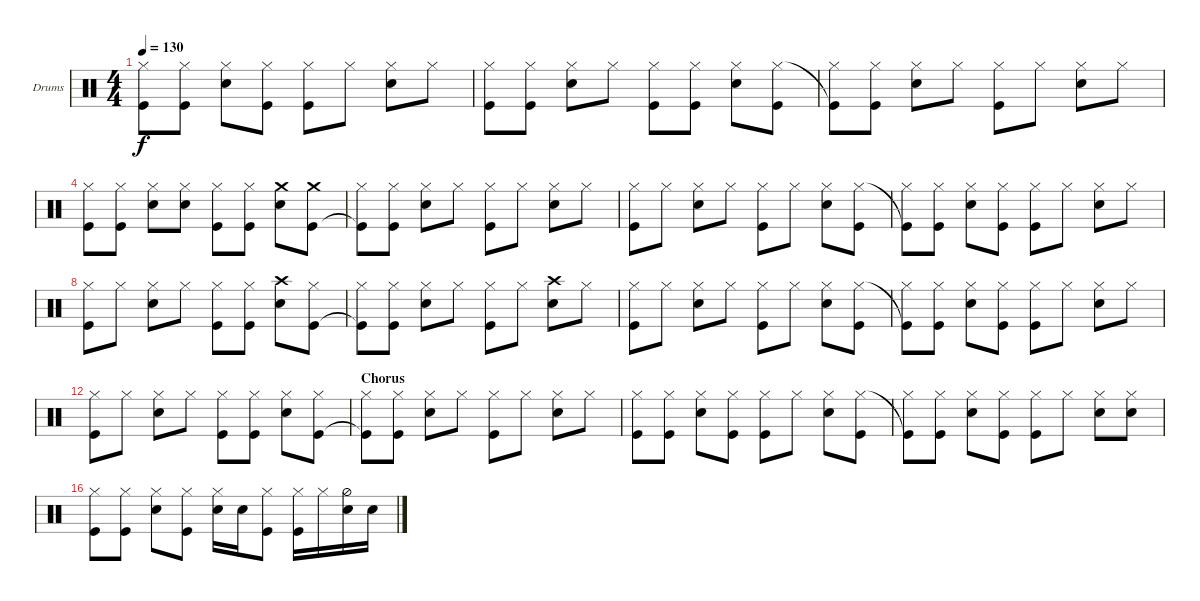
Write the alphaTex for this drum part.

\bracketExtendMode nobrackets
\firstSystemTrackNameOrientation horizontal
\otherSystemsTrackNameOrientation horizontal
\defaultBarNumberDisplay FirstOfSystem
\track ("Drumkit" "Drums") {instrument percussion}
\staff {score}
\articulation defaults
\ts (4 4)
\scale
0.28
\tempo 130
\accidentals auto
\clef neutral
\ottava regular
\simile none
\ks c
("Hi-Hat (closed)" "Kick (hit)"{t}).8{dy f} ("Kick (hit)" "Hi-Hat (closed)").8 ("Snare (hit) 2" "Hi-Hat (closed)").8 ("Hi-Hat (closed)" "Kick (hit)").8 ("Kick (hit)" "Hi-Hat (closed)").8 "Hi-Hat (closed)".8 ("Snare (hit) 2" "Hi-Hat (closed)").8 "Hi-Hat (closed)".8 |
\scale
0.275862 ("Kick (hit)" "Hi-Hat (closed)").8 ("Hi-Hat (closed)" "Kick (hit)").8 ("Snare (hit) 2" "Hi-Hat (closed)").8 "Hi-Hat (closed)".8 ("Kick (hit)" "Hi-Hat (closed)").8 ("Hi-Hat (closed)" "Kick (hit)").8 ("Snare (hit) 2" "Hi-Hat (closed)").8 ("Kick (hit)" "Hi-Hat (closed)").8 |
\scale
0.433498 ("Hi-Hat (closed)" "Kick (hit)"{t}).8 ("Kick (hit)" "Hi-Hat (closed)").8 ("Snare (hit) 2" "Hi-Hat (closed)").8 "Hi-Hat (closed)".8 ("Kick (hit)" "Hi-Hat (closed)").8 "Hi-Hat (closed)".8 ("Snare (hit) 2" "Hi-Hat (closed)").8 "Hi-Hat (closed)".8 |
\scale
0.29064 ("Kick (hit)" "Hi-Hat (closed)").8 ("Hi-Hat (closed)" "Kick (hit)").8 ("Snare (hit) 2" "Hi-Hat (closed)").8 ("Hi-Hat (closed)" "Snare (hit) 2").8 ("Kick (hit)" "Hi-Hat (closed)").8 ("Kick (hit)" "Hi-Hat (closed)").8 ("Snare (hit) 2" "Crash medium (hit)").8 ("Kick (hit)" "Crash medium (hit)").8 |
\scale
0.333333 ("Kick (hit)"{t} "Hi-Hat (closed)").8 ("Kick (hit)" "Hi-Hat (closed)").8 ("Snare (hit) 2" "Hi-Hat (closed)").8 "Hi-Hat (closed)".8 ("Kick (hit)" "Hi-Hat (closed)").8 "Hi-Hat (closed)".8 ("Snare (hit) 2" "Hi-Hat (closed)").8 "Hi-Hat (closed)".8 |
\scale
0.333333 ("Kick (hit)" "Hi-Hat (closed)").8 "Hi-Hat (closed)".8 ("Snare (hit) 2" "Hi-Hat (closed)").8 "Hi-Hat (closed)".8 ("Kick (hit)" "Hi-Hat (closed)").8 "Hi-Hat (closed)".8 ("Snare (hit) 2" "Hi-Hat (closed)").8 ("Kick (hit)" "Hi-Hat (closed)").8 |
\scale
0.333333 ("Hi-Hat (closed)" "Kick (hit)"{t}).8 ("Kick (hit)" "Hi-Hat (closed)").8 ("Snare (hit) 2" "Hi-Hat (closed)").8 ("Kick (hit)" "Hi-Hat (closed)").8 ("Kick (hit)" "Hi-Hat (closed)").8 "Hi-Hat (closed)".8 ("Snare (hit) 2" "Hi-Hat (closed)").8 "Hi-Hat (closed)".8 |
\scale
0.44 ("Kick (hit)" "Hi-Hat (closed)").8 "Hi-Hat (closed)".8 ("Snare (hit) 2" "Hi-Hat (closed)").8 "Hi-Hat (closed)".8 ("Kick (hit)" "Hi-Hat (closed)").8 ("Kick (hit)" "Hi-Hat (closed)").8 ("Snare (hit) 2" "Crash high (hit)").8 ("Kick (hit)" "Hi-Hat (closed)").8 |
\scale
0.28 ("Kick (hit)"{t} "Hi-Hat (closed)").8 ("Kick (hit)" "Hi-Hat (closed)").8 ("Snare (hit) 2" "Hi-Hat (closed)").8 "Hi-Hat (closed)".8 ("Kick (hit)" "Hi-Hat (closed)").8 "Hi-Hat (closed)".8 ("Snare (hit) 2" "Crash high (hit)").8 "Hi-Hat (closed)".8 |
\scale
0.28 ("Kick (hit)" "Hi-Hat (closed)").8 "Hi-Hat (closed)".8 ("Snare (hit) 2" "Hi-Hat (closed)").8 "Hi-Hat (closed)".8 ("Kick (hit)" "Hi-Hat (closed)").8 "Hi-Hat (closed)".8 ("Snare (hit) 2" "Hi-Hat (closed)").8 ("Kick (hit)" "Hi-Hat (closed)").8 |
\scale
0.44 ("Hi-Hat (closed)" "Kick (hit)"{t}).8 ("Kick (hit)" "Hi-Hat (closed)").8 ("Snare (hit) 2" "Hi-Hat (closed)").8 ("Kick (hit)" "Hi-Hat (closed)").8 ("Kick (hit)" "Hi-Hat (closed)").8 "Hi-Hat (closed)".8 ("Snare (hit) 2" "Hi-Hat (closed)").8 "Hi-Hat (closed)".8 |
\scale
0.28 ("Kick (hit)" "Hi-Hat (closed)").8 "Hi-Hat (closed)".8 ("Snare (hit) 2" "Hi-Hat (closed)").8 "Hi-Hat (closed)".8 ("Kick (hit)" "Hi-Hat (closed)").8 ("Kick (hit)" "Hi-Hat (closed)").8 ("Snare (hit) 2" "Hi-Hat (closed)").8 ("Kick (hit)" "Hi-Hat (closed)").8 |
\section ("" "Chorus")
\scale
0.28 ("Kick (hit)"{t} "Hi-Hat (closed)").8 ("Kick (hit)" "Hi-Hat (closed)").8 ("Snare (hit) 2" "Hi-Hat (closed)").8 "Hi-Hat (closed)".8 ("Kick (hit)" "Hi-Hat (closed)").8 "Hi-Hat (closed)".8 ("Snare (hit) 2" "Hi-Hat (closed)").8 "Hi-Hat (closed)".8 |
\scale
0.363636 ("Kick (hit)" "Hi-Hat (closed)").8 ("Kick (hit)" "Hi-Hat (closed)").8 ("Snare (hit) 2" "Hi-Hat (closed)").8 ("Kick (hit)" "Hi-Hat (closed)").8 ("Kick (hit)" "Hi-Hat (closed)").8 "Hi-Hat (closed)".8 ("Snare (hit) 2" "Hi-Hat (closed)").8 ("Hi-Hat (closed)" "Kick (hit)").8 |
\scale
0.318182 ("Kick (hit)"{t} "Hi-Hat (closed)").8 ("Kick (hit)" "Hi-Hat (closed)").8 ("Snare (hit) 2" "Hi-Hat (closed)").8 ("Hi-Hat (closed)" "Kick (hit)").8 ("Kick (hit)" "Hi-Hat (closed)").8 "Hi-Hat (closed)".8 ("Snare (hit) 2" "Hi-Hat (closed)").8 ("Snare (hit) 2" "Hi-Hat (closed)").8 |
\scale
0.318182 ("Kick (hit)" "Hi-Hat (closed)").8 ("Kick (hit)" "Hi-Hat (closed)").8 ("Snare (hit) 2" "Hi-Hat (closed)").8 ("Kick (hit)" "Hi-Hat (closed)").8 ("Snare (hit) 2" "Hi-Hat (closed)").16 "Snare (hit) 2".16 ("Hi-Hat (closed)" "Kick (hit)").8 ("Hi-Hat (closed)" "Kick (hit)").16 "Hi-Hat (closed)".16 ("Hi-Hat (half)" "Snare (hit) 2").16 "Snare (hit) 2".16
